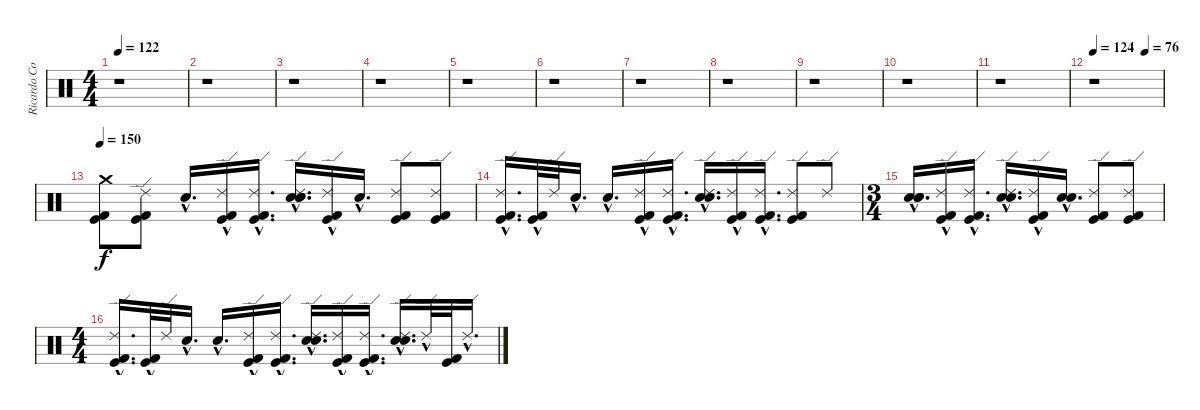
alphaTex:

\track ("Ricardo Confessori" "Ricardo Co") {instrument percussion}
\staff {score}
\articulation defaults
\ts (4 4)
\tempo 122
\clef neutral
\ks c
r.1{dy f} |
r.1 |
r.1 |
r.1 |
r.1 |
r.1 |
r.1 |
r.1 |
r.1 |
r.1 |
r.1 |
\tempo 124
\tempo (76 0.75)
r.1 |
\tempo 150
("Crash medium (hit)" "Kick (hit) 2" "Kick (hit)").8 ("Ride (edge) 2" "Kick (hit) 2" "Kick (hit)").8 "Snare (hit)"{hac}.16{d} ("Ride (edge) 2"{hac} "Kick (hit) 2"{hac} "Kick (hit)"{hac}).16 ("Ride (edge) 2"{hac} "Kick (hit) 2"{hac} "Kick (hit)"{hac}).16{d} ("Electric Snare (hit)"{hac} "Snare (hit) 2"{hac} "Ride (edge) 2"{hac} "Snare (hit)"{hac}).16{d} ("Ride (edge) 2"{hac} "Kick (hit) 2"{hac} "Kick (hit)"{hac}).16 "Snare (hit)"{hac}.16{d} ("Ride (edge) 2" "Kick (hit) 2" "Kick (hit)").8 ("Ride (edge) 2" "Kick (hit) 2" "Kick (hit)").8 |
("Ride (edge) 2" "Kick (hit) 2"{hac} "Kick (hit)"{hac}).16{d} ("Kick (hit) 2"{hac} "Kick (hit)"{hac}).32 "Ride (edge) 2".32 "Snare (hit)"{hac}.16{d} "Snare (hit)"{hac}.16{d} ("Ride (edge) 2"{hac} "Kick (hit) 2"{hac} "Kick (hit)"{hac}).16 ("Ride (edge) 2"{hac} "Kick (hit) 2"{hac} "Kick (hit)"{hac}).16{d} ("Electric Snare (hit)"{hac} "Snare (hit) 2"{hac} "Ride (edge) 2"{hac}).16{d} ("Ride (edge) 2"{hac} "Kick (hit) 2"{hac} "Kick (hit)"{hac}).16 ("Ride (edge) 2"{hac} "Kick (hit) 2"{hac} "Kick (hit)"{hac}).16{d} ("Kick (hit) 2" "Ride (edge) 2" "Kick (hit)").8 "Ride (edge) 2".8 |
\ts (3 4)
("Electric Snare (hit)"{hac} "Snare (hit) 2"{hac} "Snare (hit)"{hac}).16{d} ("Kick (hit) 2"{hac} "Ride (edge) 2"{hac} "Kick (hit)"{hac}).16 ("Kick (hit) 2"{hac} "Ride (edge) 2"{hac} "Kick (hit)"{hac}).16{d} ("Electric Snare (hit)"{hac} "Snare (hit) 2"{hac} "Ride (edge) 2"{hac}).16{d} ("Ride (edge) 2"{hac} "Kick (hit) 2"{hac} "Kick (hit)"{hac}).16 ("Snare (hit)"{hac} "Snare (hit)"{hac}).16{d} ("Ride (edge) 2" "Kick (hit) 2" "Kick (hit)").8 ("Ride (edge) 2" "Kick (hit) 2" "Kick (hit)").8 |
\ts (4 4)
("Ride (edge) 2" "Kick (hit) 2"{hac} "Kick (hit)"{hac}).16{d} ("Kick (hit) 2"{hac} "Kick (hit)"{hac}).32 "Ride (edge) 2".32 "Snare (hit)"{hac}.16{d} "Snare (hit)"{hac}.16{d} ("Ride (edge) 2"{hac} "Kick (hit) 2"{hac} "Kick (hit)"{hac}).16 ("Ride (edge) 2"{hac} "Kick (hit) 2"{hac} "Kick (hit)"{hac}).16{d} ("Electric Snare (hit)"{hac} "Snare (hit) 2"{hac} "Ride (edge) 2"{hac}).16{d} ("Ride (edge) 2"{hac} "Kick (hit) 2"{hac} "Kick (hit)"{hac}).16 ("Ride (edge) 2"{hac} "Kick (hit) 2"{hac} "Kick (hit)"{hac}).16{d} ("Electric Snare (hit)"{hac} "Snare (hit) 2"{hac} "Ride (edge) 2"{hac}).16{d} "Ride (edge) 2"{hac}.32 ("Kick (hit) 2" "Kick (hit)").32 "Ride (edge) 2"{hac}.16{d}
